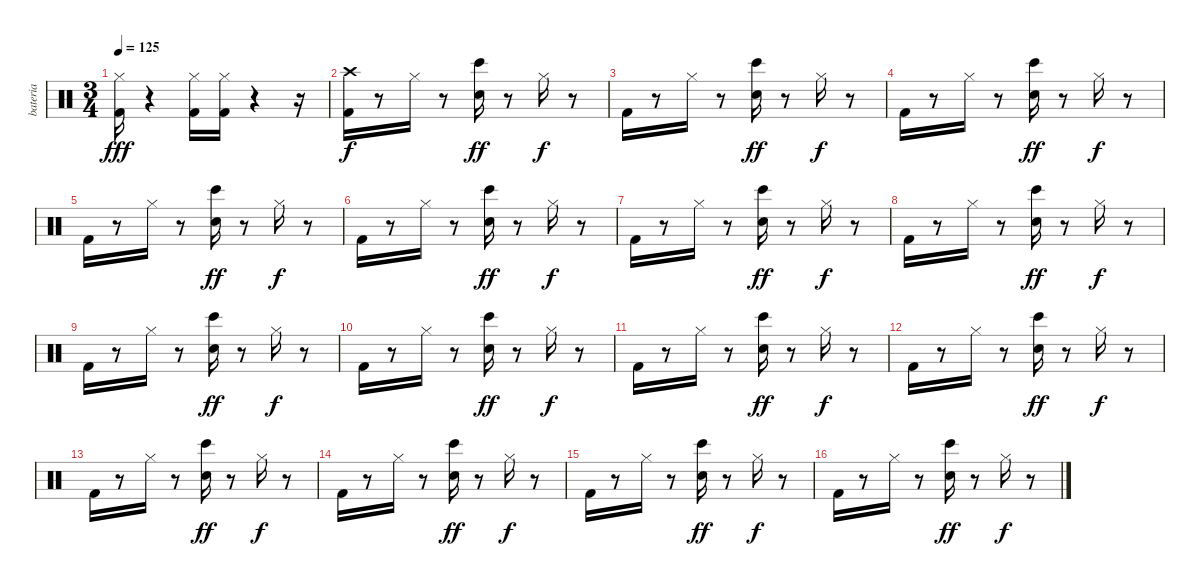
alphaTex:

\track ("bateria" "bateria") {instrument percussion}
\staff {score}
\articulation defaults
\ts (3 4)
\tempo 125
\clef neutral
\ks c
("Hi-Hat (closed)" "Kick (hit) 2").16{dy fff balance 8} r.4 ("Hi-Hat (closed)" "Kick (hit) 2").16 ("Hi-Hat (closed)" "Kick (hit) 2").16 r.4 r.16 |
("Crash high (hit)" "Kick (hit) 2").16{dy f volume 15 balance 8} r.8 "Hi-Hat (closed)".16 r.8 ("Bongo High (hit)" "Snare (hit) 2").16{dy ff} r.8 "Hi-Hat (closed)".16{dy f volume 15 balance 8} r.8 |
"Kick (hit) 2".16 r.8 "Hi-Hat (closed)".16 r.8 ("Snare (hit) 2" "Bongo High (hit)").16{dy ff volume 15 balance 8} r.8 "Hi-Hat (closed)".16{dy f} r.8 |
"Kick (hit) 2".16{volume 15 balance 8} r.8 "Hi-Hat (closed)".16 r.8 ("Bongo High (hit)" "Snare (hit) 2").16{dy ff} r.8 "Hi-Hat (closed)".16{dy f volume 15 balance 8} r.8 |
"Kick (hit) 2".16{volume 15 balance 8} r.8 "Hi-Hat (closed)".16 r.8 ("Bongo High (hit)" "Snare (hit) 2").16{dy ff} r.8 "Hi-Hat (closed)".16{dy f volume 15 balance 8} r.8 |
"Kick (hit) 2".16 r.8 "Hi-Hat (closed)".16 r.8 ("Snare (hit) 2" "Bongo High (hit)").16{dy ff volume 15 balance 8} r.8 "Hi-Hat (closed)".16{dy f} r.8 |
"Kick (hit) 2".16{volume 15 balance 8} r.8 "Hi-Hat (closed)".16 r.8 ("Bongo High (hit)" "Snare (hit) 2").16{dy ff} r.8 "Hi-Hat (closed)".16{dy f volume 15 balance 8} r.8 |
"Kick (hit) 2".16{volume 15 balance 8} r.8 "Hi-Hat (closed)".16 r.8 ("Bongo High (hit)" "Snare (hit) 2").16{dy ff} r.8 "Hi-Hat (closed)".16{dy f volume 15 balance 8} r.8 |
"Kick (hit) 2".16 r.8 "Hi-Hat (closed)".16 r.8 ("Snare (hit) 2" "Bongo High (hit)").16{dy ff volume 15 balance 8} r.8 "Hi-Hat (closed)".16{dy f} r.8 |
"Kick (hit) 2".16{volume 15 balance 8} r.8 "Hi-Hat (closed)".16 r.8 ("Bongo High (hit)" "Snare (hit) 2").16{dy ff} r.8 "Hi-Hat (closed)".16{dy f volume 15 balance 8} r.8 |
"Kick (hit) 2".16{volume 15 balance 8} r.8 "Hi-Hat (closed)".16 r.8 ("Bongo High (hit)" "Snare (hit) 2").16{dy ff} r.8 "Hi-Hat (closed)".16{dy f volume 15 balance 8} r.8 |
"Kick (hit) 2".16 r.8 "Hi-Hat (closed)".16 r.8 ("Snare (hit) 2" "Bongo High (hit)").16{dy ff volume 15 balance 8} r.8 "Hi-Hat (closed)".16{dy f} r.8 |
"Kick (hit) 2".16{volume 15 balance 8} r.8 "Hi-Hat (closed)".16 r.8 ("Bongo High (hit)" "Snare (hit) 2").16{dy ff} r.8 "Hi-Hat (closed)".16{dy f volume 15 balance 8} r.8 |
"Kick (hit) 2".16{volume 15 balance 8} r.8 "Hi-Hat (closed)".16 r.8 ("Bongo High (hit)" "Snare (hit) 2").16{dy ff} r.8 "Hi-Hat (closed)".16{dy f volume 15 balance 8} r.8 |
"Kick (hit) 2".16 r.8 "Hi-Hat (closed)".16 r.8 ("Snare (hit) 2" "Bongo High (hit)").16{dy ff volume 15 balance 8} r.8 "Hi-Hat (closed)".16{dy f} r.8 |
"Kick (hit) 2".16{volume 15 balance 8} r.8 "Hi-Hat (closed)".16 r.8 ("Bongo High (hit)" "Snare (hit) 2").16{dy ff} r.8 "Hi-Hat (closed)".16{dy f volume 15 balance 8} r.8
